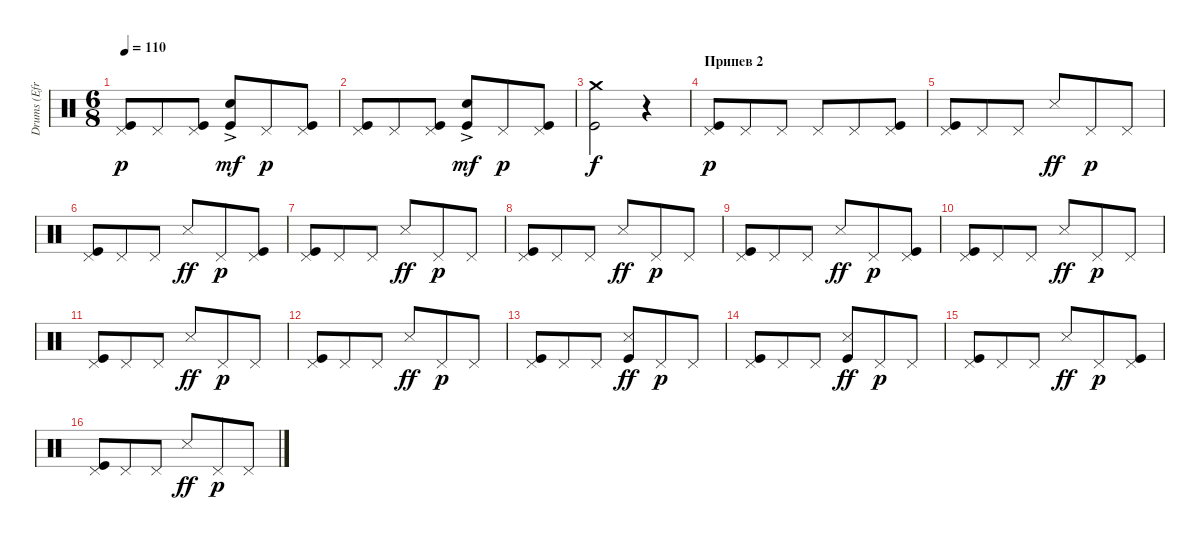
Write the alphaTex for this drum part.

\track ("Drums (Efremov)" "Drums (Efr") {instrument percussion}
\staff {score}
\articulation defaults
\ts (6 8)
\tempo 110
\clef neutral
\ks c
("Pedal Hi-Hat (hit)" "Kick (hit)").8{dy p} "Pedal Hi-Hat (hit)".8 ("Kick (hit)" "Pedal Hi-Hat (hit)").8 ("Kick (hit)" "Electric Snare (hit)"{ac}).8{dy mf} "Pedal Hi-Hat (hit)".8{dy p} ("Kick (hit)" "Pedal Hi-Hat (hit)").8 |
("Pedal Hi-Hat (hit)" "Kick (hit)").8 "Pedal Hi-Hat (hit)".8 ("Kick (hit)" "Pedal Hi-Hat (hit)").8 ("Kick (hit)" "Electric Snare (hit)"{ac}).8{dy mf} "Pedal Hi-Hat (hit)".8{dy p} ("Kick (hit)" "Pedal Hi-Hat (hit)").8 |
("Crash medium (hit)" "Kick (hit)").2{dy f} r.4 |
\section ("" "Припев 2")
("Pedal Hi-Hat (hit)" "Kick (hit)").8{dy p} "Pedal Hi-Hat (hit)".8 "Pedal Hi-Hat (hit)".8 "Pedal Hi-Hat (hit)".8 "Pedal Hi-Hat (hit)".8 ("Kick (hit)" "Pedal Hi-Hat (hit)").8 |
("Pedal Hi-Hat (hit)" "Kick (hit)").8 "Pedal Hi-Hat (hit)".8 "Pedal Hi-Hat (hit)".8 "Snare (side stick) 3".8{dy ff} "Pedal Hi-Hat (hit)".8{dy p} "Pedal Hi-Hat (hit)".8 |
("Pedal Hi-Hat (hit)" "Kick (hit)").8 "Pedal Hi-Hat (hit)".8 "Pedal Hi-Hat (hit)".8 "Snare (side stick) 3".8{dy ff} "Pedal Hi-Hat (hit)".8{dy p} ("Kick (hit)" "Pedal Hi-Hat (hit)").8 |
("Pedal Hi-Hat (hit)" "Kick (hit)").8 "Pedal Hi-Hat (hit)".8 "Pedal Hi-Hat (hit)".8 "Snare (side stick) 3".8{dy ff} "Pedal Hi-Hat (hit)".8{dy p} "Pedal Hi-Hat (hit)".8 |
("Pedal Hi-Hat (hit)" "Kick (hit)").8 "Pedal Hi-Hat (hit)".8 "Pedal Hi-Hat (hit)".8 "Snare (side stick) 3".8{dy ff} "Pedal Hi-Hat (hit)".8{dy p} "Pedal Hi-Hat (hit)".8 |
("Pedal Hi-Hat (hit)" "Kick (hit)").8 "Pedal Hi-Hat (hit)".8 "Pedal Hi-Hat (hit)".8 "Snare (side stick) 3".8{dy ff} "Pedal Hi-Hat (hit)".8{dy p} ("Kick (hit)" "Pedal Hi-Hat (hit)").8 |
("Pedal Hi-Hat (hit)" "Kick (hit)").8 "Pedal Hi-Hat (hit)".8 "Pedal Hi-Hat (hit)".8 "Snare (side stick) 3".8{dy ff} "Pedal Hi-Hat (hit)".8{dy p} "Pedal Hi-Hat (hit)".8 |
("Pedal Hi-Hat (hit)" "Kick (hit)").8 "Pedal Hi-Hat (hit)".8 "Pedal Hi-Hat (hit)".8 "Snare (side stick) 3".8{dy ff} "Pedal Hi-Hat (hit)".8{dy p} "Pedal Hi-Hat (hit)".8 |
("Pedal Hi-Hat (hit)" "Kick (hit)").8 "Pedal Hi-Hat (hit)".8 "Pedal Hi-Hat (hit)".8 "Snare (side stick) 3".8{dy ff} "Pedal Hi-Hat (hit)".8{dy p} "Pedal Hi-Hat (hit)".8 |
("Pedal Hi-Hat (hit)" "Kick (hit)").8 "Pedal Hi-Hat (hit)".8 "Pedal Hi-Hat (hit)".8 ("Kick (hit)" "Snare (side stick) 3").8{dy ff} "Pedal Hi-Hat (hit)".8{dy p} "Pedal Hi-Hat (hit)".8 |
("Pedal Hi-Hat (hit)" "Kick (hit)").8 "Pedal Hi-Hat (hit)".8 "Pedal Hi-Hat (hit)".8 ("Kick (hit)" "Snare (side stick) 3").8{dy ff} "Pedal Hi-Hat (hit)".8{dy p} "Pedal Hi-Hat (hit)".8 |
("Pedal Hi-Hat (hit)" "Kick (hit)").8 "Pedal Hi-Hat (hit)".8 "Pedal Hi-Hat (hit)".8 "Snare (side stick) 3".8{dy ff} "Pedal Hi-Hat (hit)".8{dy p} ("Kick (hit)" "Pedal Hi-Hat (hit)").8 |
("Pedal Hi-Hat (hit)" "Kick (hit)").8 "Pedal Hi-Hat (hit)".8 "Pedal Hi-Hat (hit)".8 "Snare (side stick) 3".8{dy ff} "Pedal Hi-Hat (hit)".8{dy p} "Pedal Hi-Hat (hit)".8
